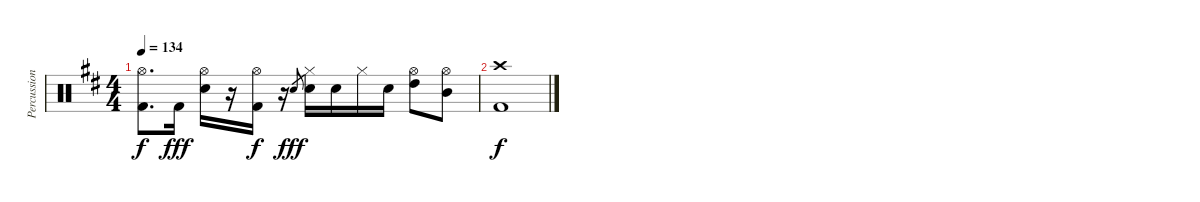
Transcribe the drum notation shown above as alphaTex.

\track ("Percussion" "Percussion") {instrument percussion}
\staff {score}
\articulation defaults
\ts (4 4)
\tempo 134
\clef neutral
\ks bminor
("Hi-Hat (open)" "Kick (hit) 2").8{d dy f} "Kick (hit) 2".16{dy fff} ("Hi-Hat (open)" "Snare (hit) 2").16 r.16 ("Hi-Hat (open)" "Kick (hit) 2").16{dy f} r.16 "Snare (hit) 2".8{gr dy fff} ("Hi-Hat (closed)" "Snare (hit) 2").16 "Snare (hit) 2".16 "Hi-Hat (closed)".16 "Snare (hit) 2".16 ("Hi-Hat (open)" "High Tom (hit)").8 ("Hi-Hat (open)" "Mid Tom (hit)").8 |
("Crash high (hit)" "Kick (hit) 2").1{dy f}
